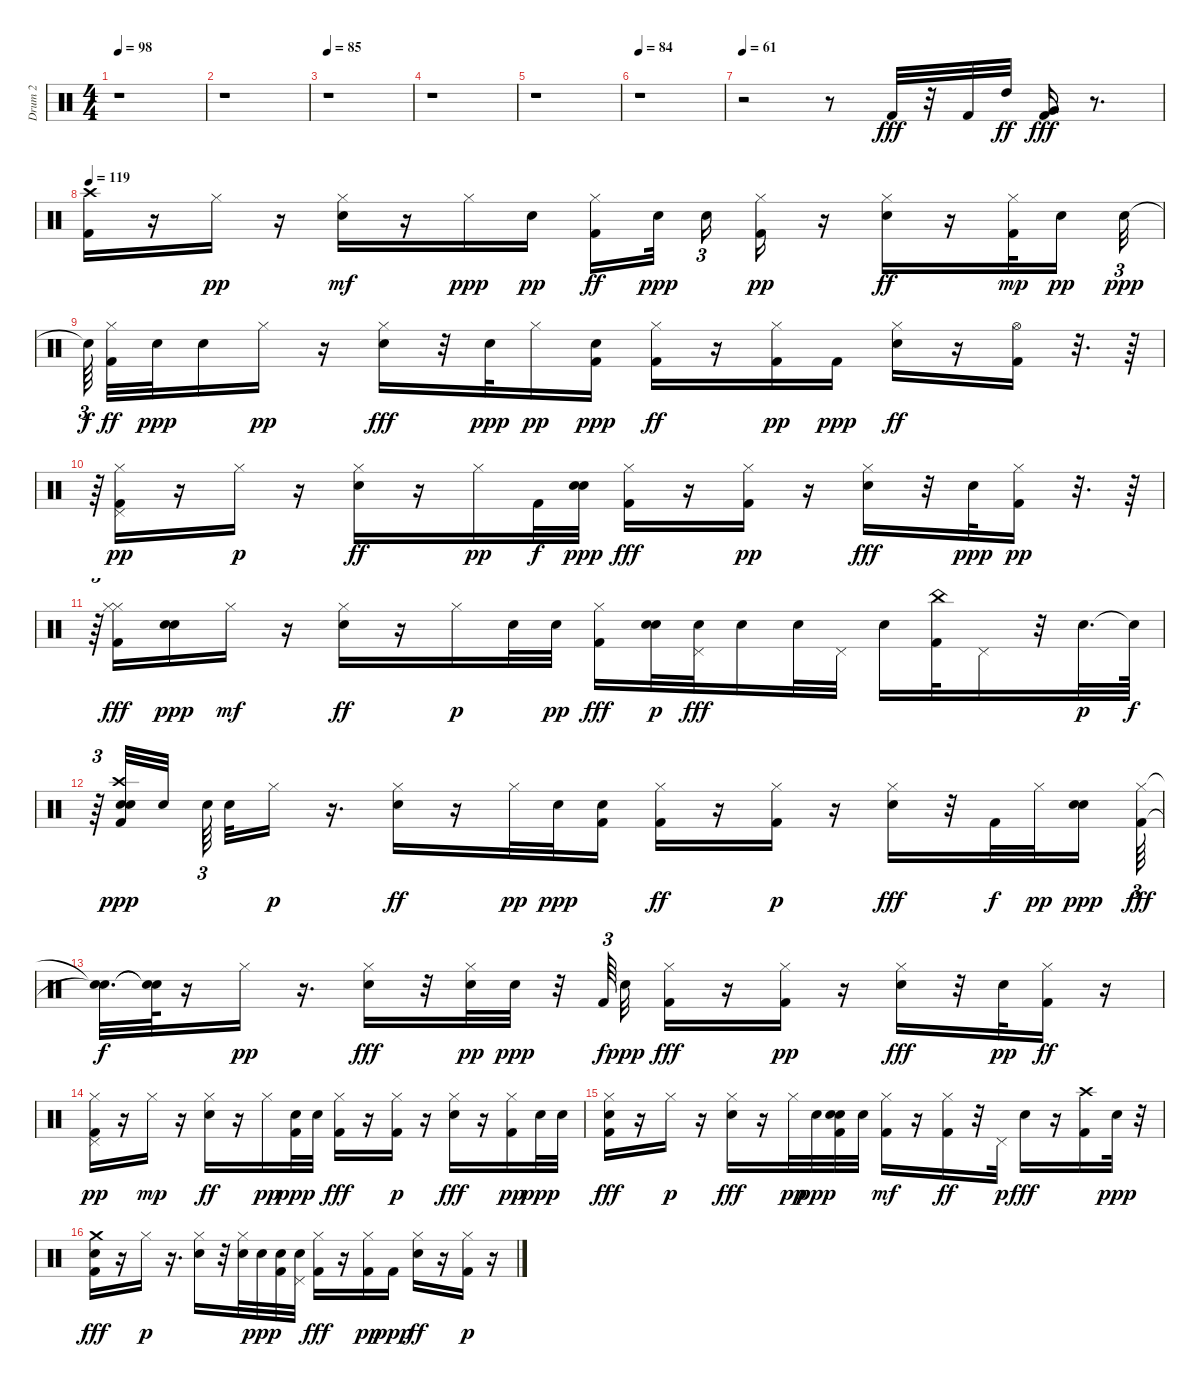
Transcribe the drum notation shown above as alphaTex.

\track ("Drum 2                          " "Drum 2    ") {instrument percussion}
\staff {score}
\articulation defaults
\ts (4 4)
\tempo 98
\clef neutral
\ks c
r.1{dy fff} |
r.1 |
\tempo 85
r.1 |
r.1 |
r.1 |
\tempo 84
r.1 |
\tempo 61
r.2 r.8 "Kick (hit) 2".32{balance 4} r.32 "Kick (hit) 2".32 "High Tom (hit)".32{dy ff} ("Very Low Tom (hit)" "Kick (hit) 2").16{dy fff} r.8{d} |
\tempo 119
("Kick (hit) 2" "Crash high (hit)").16 r.16 "Hi-Hat (closed)".16{dy pp} r.16 ("Snare (hit) 2" "Hi-Hat (closed)").16{dy mf} r.16 "Hi-Hat (closed)".16{dy ppp} "Snare (hit) 2".16{dy pp} ("Kick (hit) 2" "Hi-Hat (closed)").16{dy ff} "Snare (hit) 2".32{dy ppp beam splitsecondary} "Snare (hit) 2".16{tu (3 2)} ("Kick (hit) 2" "Hi-Hat (closed)").16{dy pp} r.16 ("Snare (hit) 2" "Hi-Hat (closed)").16{dy ff} r.16 ("Hi-Hat (closed)" "Kick (hit) 2").32{dy mp} "Snare (hit) 2".16{dy pp beam splitsecondary} "Snare (hit) 2".32{tu (3 2) dy ppp} |
"Snare (hit)"{t}.64{tu (3 2) dy f beam splitsecondary} ("Kick (hit) 2" "Hi-Hat (closed)").32{dy ff} "Snare (hit) 2".32{dy ppp} "Snare (hit) 2".16 "Hi-Hat (closed)".16{dy pp} r.16 ("Snare (hit) 2" "Hi-Hat (closed)").16{dy fff} r.32 "Snare (hit) 2".32{dy ppp} "Hi-Hat (closed)".16{dy pp} ("Kick (hit) 2" "Snare (hit) 2").16{dy ppp} ("Kick (hit) 2" "Hi-Hat (closed)").16{dy ff} r.16 ("Kick (hit) 2" "Hi-Hat (closed)").16{dy pp} "Kick (hit) 2".16{dy ppp} ("Snare (hit) 2" "Hi-Hat (closed)").16{dy ff} r.16 ("Kick (hit) 2" "Hi-Hat (open)").16 r.32{d} r.64 |
r.64{tu (3 2)} ("Pedal Hi-Hat (hit)" "Kick (hit) 2" "Hi-Hat (closed)").16{dy pp} r.16 "Hi-Hat (closed)".16{dy p} r.16 ("Snare (hit) 2" "Hi-Hat (closed)").16{dy ff} r.16 "Hi-Hat (closed)".16{dy pp} "Kick (hit) 2".32{dy f} ("Snare (hit) 2" "Snare (hit) 2").32{dy ppp} ("Kick (hit) 2" "Hi-Hat (closed)").16{dy fff} r.16 ("Kick (hit) 2" "Hi-Hat (closed)").16{dy pp} r.16 ("Hi-Hat (closed)" "Snare (hit) 2").16{dy fff} r.32 "Snare (hit) 2".32{dy ppp} ("Kick (hit) 2" "Hi-Hat (closed)").16{dy pp} r.32{d} r.64 |
r.64{tu (3 2)} ("Hi-Hat (closed)" "Kick (hit) 2" "Hi-Hat (closed)").16{dy fff} ("Snare (hit) 2" "Snare (hit) 2").16{dy ppp} "Hi-Hat (closed)".16{dy mf} r.16 ("Snare (hit) 2" "Hi-Hat (closed)").16{dy ff} r.16 "Hi-Hat (closed)".16{dy p} "Snare (hit) 2".32 "Snare (hit) 2".32{dy pp} ("Kick (hit) 2" "Hi-Hat (closed)").16{dy fff} ("Snare (hit) 2" "Snare (hit) 2").32{dy p} ("Snare (hit) 2" "Pedal Hi-Hat (hit)").32{dy fff} "Snare (hit) 2".16 "Snare (hit) 2".32 "Pedal Hi-Hat (hit)".32 "Snare (hit) 2".16 ("China (hit)" "Kick (hit) 2").32 "Pedal Hi-Hat (hit)".16 r.32 "Snare (hit) 2".32{d dy p} "Snare (hit)"{t}.64{dy f} |
r.64{tu (3 2)} ("Snare (hit) 2" "Kick (hit) 2" "Crash high (hit)" "Snare (hit) 2").32{dy ppp} "Snare (hit) 2".32{beam splitsecondary} "Snare (hit) 2".64{tu (3 2) beam splitsecondary} "Snare (hit) 2".32 "Hi-Hat (closed)".16{dy p} r.16{d} ("Snare (hit) 2" "Hi-Hat (closed)").16{dy ff} r.16 "Hi-Hat (closed)".32{dy pp} "Snare (hit) 2".32{dy ppp} ("Snare (hit) 2" "Kick (hit) 2").16 ("Kick (hit) 2" "Hi-Hat (closed)").16{dy ff} r.16 ("Kick (hit) 2" "Hi-Hat (closed)").16{dy p} r.16 ("Hi-Hat (closed)" "Snare (hit) 2").16{dy fff} r.32 "Kick (hit) 2".32{dy f} "Hi-Hat (closed)".32{dy pp} ("Snare (hit) 2" "Snare (hit) 2").16{dy ppp beam splitsecondary} ("Kick (hit) 2" "Hi-Hat (closed)").64{tu (3 2) dy fff} |
("Snare (hit)"{t} "Snare (hit)"{t}).32{d dy f} ("Snare (hit)"{t} "Snare (hit)"{t}).64 r.16 "Hi-Hat (closed)".16{dy pp} r.16{d} ("Hi-Hat (closed)" "Snare (hit) 2").16{dy fff} r.32 ("Snare (hit) 2" "Hi-Hat (closed)").32{dy pp} "Snare (hit) 2".32{dy ppp} r.32 "Kick (hit) 2".64{tu (3 2) dy f} "Snare (hit) 2".32{dy ppp} ("Hi-Hat (closed)" "Kick (hit) 2").16{dy fff} r.16 ("Kick (hit) 2" "Hi-Hat (closed)").16{dy pp} r.16 ("Hi-Hat (closed)" "Snare (hit) 2").16{dy fff} r.32 "Snare (hit) 2".32{dy pp} ("Kick (hit) 2" "Hi-Hat (closed)").16{dy ff} r.16 |
("Pedal Hi-Hat (hit)" "Kick (hit) 2" "Hi-Hat (closed)").16{dy pp} r.16 "Hi-Hat (closed)".16{dy mp} r.16 ("Snare (hit) 2" "Hi-Hat (closed)").16{dy ff} r.16 "Hi-Hat (closed)".16{dy pp} ("Snare (hit) 2" "Kick (hit) 2").32{dy ppp} "Snare (hit) 2".32 ("Kick (hit) 2" "Hi-Hat (closed)").16{dy fff} r.16 ("Kick (hit) 2" "Hi-Hat (closed)").16{dy p} r.16 ("Snare (hit) 2" "Hi-Hat (closed)").16{dy fff} r.16 ("Kick (hit) 2" "Hi-Hat (closed)").16{dy pp} "Snare (hit) 2".32{dy ppp} "Snare (hit) 2".32 |
("Snare (hit) 2" "Hi-Hat (closed)" "Kick (hit) 2").16{dy fff} r.16 "Hi-Hat (closed)".16{dy p} r.16 ("Snare (hit) 2" "Hi-Hat (closed)").16{dy fff} r.16 "Hi-Hat (closed)".32{dy pp} "Snare (hit) 2".32{dy ppp} ("Snare (hit) 2" "Kick (hit) 2" "Snare (hit) 2").32 "Snare (hit) 2".32 ("Kick (hit) 2" "Hi-Hat (closed)").16{dy mf} r.16 ("Kick (hit) 2" "Hi-Hat (closed)").16{dy ff} r.32 "Pedal Hi-Hat (hit)".32{dy p} "Snare (hit) 2".16{dy fff} r.16 ("Kick (hit) 2" "Crash high (hit)").16 "Snare (hit) 2".32{dy ppp} r.32 |
("Snare (hit) 2" "Kick (hit) 2" "Crash medium (hit)").16{dy fff} r.16 "Hi-Hat (closed)".16{dy p} r.16{d} ("Snare (hit) 2" "Hi-Hat (closed)").16 r.32 ("Snare (hit) 2" "Hi-Hat (closed)").32 "Snare (hit) 2".32{dy ppp} ("Snare (hit) 2" "Kick (hit) 2").32 ("Pedal Hi-Hat (hit)" "Snare (hit) 2").32 ("Kick (hit) 2" "Hi-Hat (closed)").16{dy fff} r.16 ("Kick (hit) 2" "Hi-Hat (closed)").16{dy pp} "Kick (hit) 2".16{dy ppp} ("Snare (hit) 2" "Hi-Hat (closed)").16{dy ff} r.16 ("Kick (hit) 2" "Hi-Hat (closed)").16{dy p} r.16
